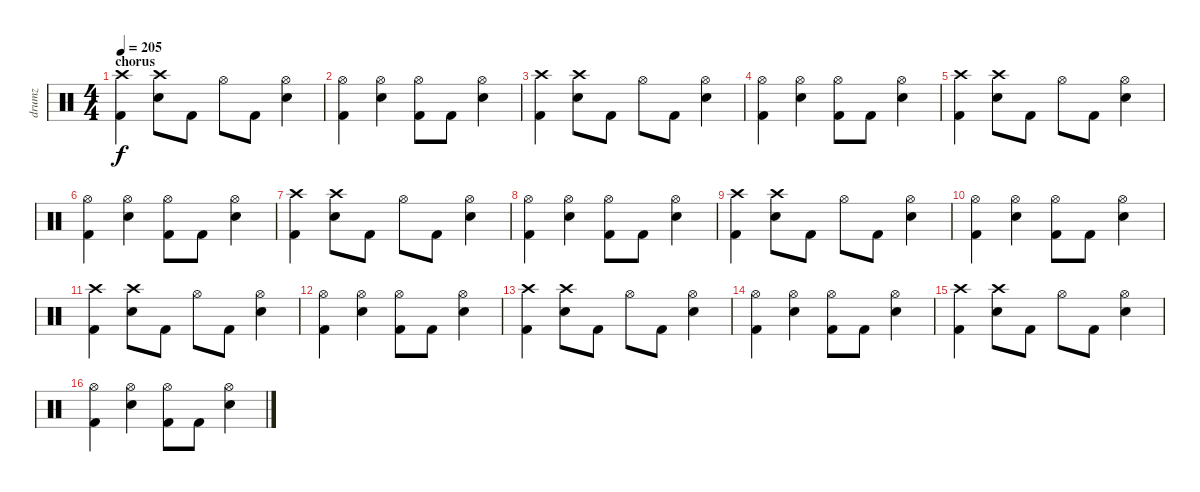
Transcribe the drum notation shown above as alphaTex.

\track ("drumz" "drumz") {instrument percussion}
\staff {score}
\articulation defaults
\ts (4 4)
\section ("" "chorus")
\tempo 205
\clef neutral
\ks c
("Crash high (hit)" "Kick (hit) 2").4{dy f} ("Crash high (hit)" "Electric Snare (hit)").8 "Kick (hit) 2".8 "Hi-Hat (open)".8 "Kick (hit) 2".8 ("Hi-Hat (open)" "Electric Snare (hit)").4 |
("Hi-Hat (open)" "Kick (hit) 2").4 ("Hi-Hat (open)" "Electric Snare (hit)").4 ("Hi-Hat (open)" "Kick (hit) 2").8 "Kick (hit) 2".8 ("Hi-Hat (open)" "Electric Snare (hit)").4 |
("Crash high (hit)" "Kick (hit) 2").4 ("Crash high (hit)" "Electric Snare (hit)").8 "Kick (hit) 2".8 "Hi-Hat (open)".8 "Kick (hit) 2".8 ("Hi-Hat (open)" "Electric Snare (hit)").4 |
("Hi-Hat (open)" "Kick (hit) 2").4 ("Hi-Hat (open)" "Electric Snare (hit)").4 ("Hi-Hat (open)" "Kick (hit) 2").8 "Kick (hit) 2".8 ("Hi-Hat (open)" "Electric Snare (hit)").4 |
("Crash high (hit)" "Kick (hit) 2").4 ("Crash high (hit)" "Electric Snare (hit)").8 "Kick (hit) 2".8 "Hi-Hat (open)".8 "Kick (hit) 2".8 ("Hi-Hat (open)" "Electric Snare (hit)").4 |
("Hi-Hat (open)" "Kick (hit) 2").4 ("Hi-Hat (open)" "Electric Snare (hit)").4 ("Hi-Hat (open)" "Kick (hit) 2").8 "Kick (hit) 2".8 ("Hi-Hat (open)" "Electric Snare (hit)").4 |
("Crash high (hit)" "Kick (hit) 2").4 ("Crash high (hit)" "Electric Snare (hit)").8 "Kick (hit) 2".8 "Hi-Hat (open)".8 "Kick (hit) 2".8 ("Hi-Hat (open)" "Electric Snare (hit)").4 |
("Hi-Hat (open)" "Kick (hit) 2").4 ("Hi-Hat (open)" "Electric Snare (hit)").4 ("Hi-Hat (open)" "Kick (hit) 2").8 "Kick (hit) 2".8 ("Hi-Hat (open)" "Electric Snare (hit)").4 |
("Crash high (hit)" "Kick (hit) 2").4 ("Crash high (hit)" "Electric Snare (hit)").8 "Kick (hit) 2".8 "Hi-Hat (open)".8 "Kick (hit) 2".8 ("Hi-Hat (open)" "Electric Snare (hit)").4 |
("Hi-Hat (open)" "Kick (hit) 2").4 ("Hi-Hat (open)" "Electric Snare (hit)").4 ("Hi-Hat (open)" "Kick (hit) 2").8 "Kick (hit) 2".8 ("Hi-Hat (open)" "Electric Snare (hit)").4 |
("Crash high (hit)" "Kick (hit) 2").4 ("Crash high (hit)" "Electric Snare (hit)").8 "Kick (hit) 2".8 "Hi-Hat (open)".8 "Kick (hit) 2".8 ("Hi-Hat (open)" "Electric Snare (hit)").4 |
("Hi-Hat (open)" "Kick (hit) 2").4 ("Hi-Hat (open)" "Electric Snare (hit)").4 ("Hi-Hat (open)" "Kick (hit) 2").8 "Kick (hit) 2".8 ("Hi-Hat (open)" "Electric Snare (hit)").4 |
("Crash high (hit)" "Kick (hit) 2").4 ("Crash high (hit)" "Electric Snare (hit)").8 "Kick (hit) 2".8 "Hi-Hat (open)".8 "Kick (hit) 2".8 ("Hi-Hat (open)" "Electric Snare (hit)").4 |
("Hi-Hat (open)" "Kick (hit) 2").4 ("Hi-Hat (open)" "Electric Snare (hit)").4 ("Hi-Hat (open)" "Kick (hit) 2").8 "Kick (hit) 2".8 ("Hi-Hat (open)" "Electric Snare (hit)").4 |
("Crash high (hit)" "Kick (hit) 2").4 ("Crash high (hit)" "Electric Snare (hit)").8 "Kick (hit) 2".8 "Hi-Hat (open)".8 "Kick (hit) 2".8 ("Hi-Hat (open)" "Electric Snare (hit)").4 |
("Hi-Hat (open)" "Kick (hit) 2").4 ("Hi-Hat (open)" "Electric Snare (hit)").4 ("Hi-Hat (open)" "Kick (hit) 2").8 "Kick (hit) 2".8 ("Hi-Hat (open)" "Electric Snare (hit)").4
